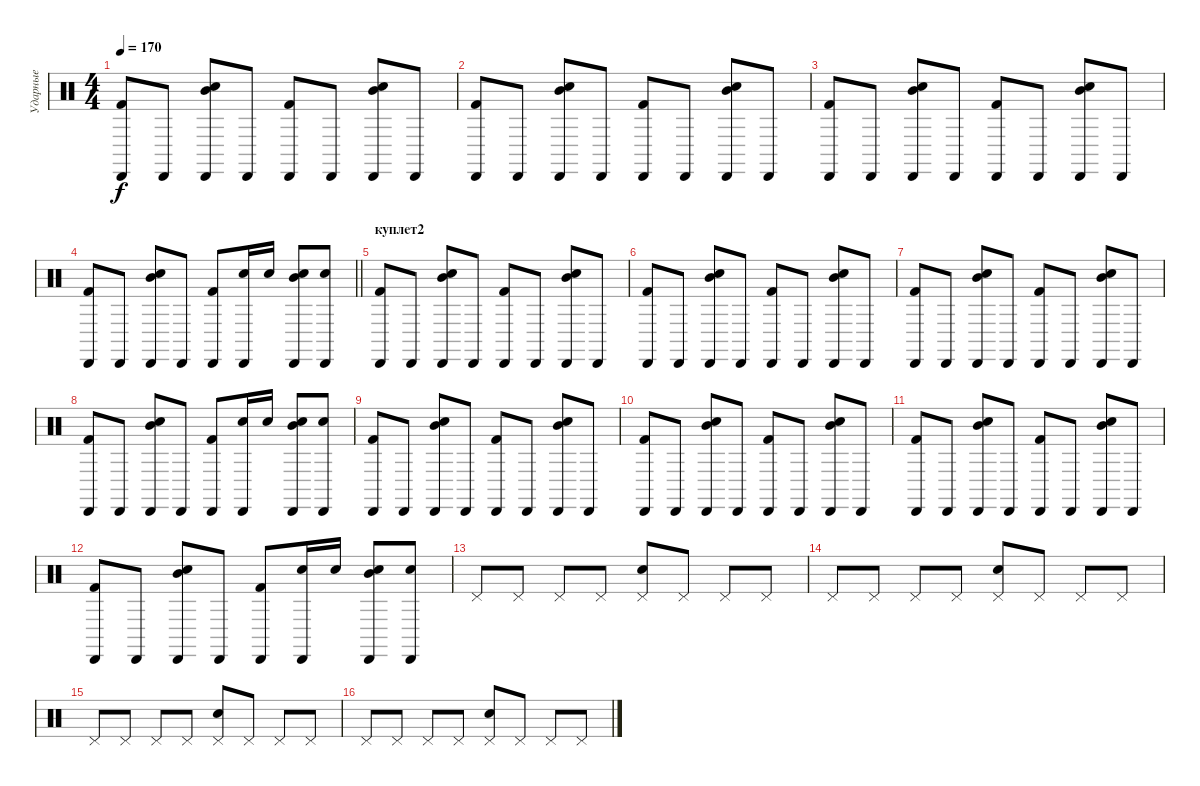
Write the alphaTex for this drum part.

\track ("Ударные" "Ударные") {instrument percussion}
\staff {score}
\articulation defaults
\ts (4 4)
\tempo 170
\clef neutral
\ks c
("Kick (hit) 2" "Cabasa (hit)").8{dy f} "Cabasa (hit)".8 ("Electric Snare (hit)" "Mid Tom (hit)" "Cabasa (hit)").8 "Cabasa (hit)".8 ("Cabasa (hit)" "Kick (hit) 2").8 "Cabasa (hit)".8 ("Cabasa (hit)" "Electric Snare (hit)" "Mid Tom (hit)").8 "Cabasa (hit)".8 |
("Cabasa (hit)" "Kick (hit) 2").8 "Cabasa (hit)".8 ("Electric Snare (hit)" "Cabasa (hit)" "Mid Tom (hit)").8 "Cabasa (hit)".8 ("Cabasa (hit)" "Kick (hit) 2").8 "Cabasa (hit)".8 ("Mid Tom (hit)" "Electric Snare (hit)" "Cabasa (hit)").8 "Cabasa (hit)".8 |
("Kick (hit) 2" "Cabasa (hit)").8 "Cabasa (hit)".8 ("Electric Snare (hit)" "Mid Tom (hit)" "Cabasa (hit)").8 "Cabasa (hit)".8 ("Cabasa (hit)" "Kick (hit) 2").8 "Cabasa (hit)".8 ("Cabasa (hit)" "Electric Snare (hit)" "Mid Tom (hit)").8 "Cabasa (hit)".8 |
\barLineRight lightlight
("Cabasa (hit)" "Kick (hit) 2").8 "Cabasa (hit)".8 ("Electric Snare (hit)" "Cabasa (hit)" "Mid Tom (hit)").8 "Cabasa (hit)".8 ("Cabasa (hit)" "Kick (hit) 2").8 ("Electric Snare (hit)" "Cabasa (hit)").16 "Electric Snare (hit)".16 ("Electric Snare (hit)" "Mid Tom (hit)" "Cabasa (hit)").8 ("Electric Snare (hit)" "Cabasa (hit)").8 |
\section ("" "куплет2")
("Kick (hit) 2" "Cabasa (hit)").8 "Cabasa (hit)".8 ("Electric Snare (hit)" "Mid Tom (hit)" "Cabasa (hit)").8 "Cabasa (hit)".8 ("Cabasa (hit)" "Kick (hit) 2").8 "Cabasa (hit)".8 ("Cabasa (hit)" "Electric Snare (hit)" "Mid Tom (hit)").8 "Cabasa (hit)".8 |
("Cabasa (hit)" "Kick (hit) 2").8 "Cabasa (hit)".8 ("Electric Snare (hit)" "Cabasa (hit)" "Mid Tom (hit)").8 "Cabasa (hit)".8 ("Cabasa (hit)" "Kick (hit) 2").8 "Cabasa (hit)".8 ("Mid Tom (hit)" "Electric Snare (hit)" "Cabasa (hit)").8 "Cabasa (hit)".8 |
("Kick (hit) 2" "Cabasa (hit)").8 "Cabasa (hit)".8 ("Electric Snare (hit)" "Mid Tom (hit)" "Cabasa (hit)").8 "Cabasa (hit)".8 ("Cabasa (hit)" "Kick (hit) 2").8 "Cabasa (hit)".8 ("Cabasa (hit)" "Electric Snare (hit)" "Mid Tom (hit)").8 "Cabasa (hit)".8 |
("Cabasa (hit)" "Kick (hit) 2").8 "Cabasa (hit)".8 ("Electric Snare (hit)" "Cabasa (hit)" "Mid Tom (hit)").8 "Cabasa (hit)".8 ("Cabasa (hit)" "Kick (hit) 2").8 ("Electric Snare (hit)" "Cabasa (hit)").16 "Electric Snare (hit)".16 ("Electric Snare (hit)" "Mid Tom (hit)" "Cabasa (hit)").8 ("Electric Snare (hit)" "Cabasa (hit)").8 |
("Kick (hit) 2" "Cabasa (hit)").8 "Cabasa (hit)".8 ("Electric Snare (hit)" "Mid Tom (hit)" "Cabasa (hit)").8 "Cabasa (hit)".8 ("Cabasa (hit)" "Kick (hit) 2").8 "Cabasa (hit)".8 ("Cabasa (hit)" "Electric Snare (hit)" "Mid Tom (hit)").8 "Cabasa (hit)".8 |
("Cabasa (hit)" "Kick (hit) 2").8 "Cabasa (hit)".8 ("Electric Snare (hit)" "Cabasa (hit)" "Mid Tom (hit)").8 "Cabasa (hit)".8 ("Cabasa (hit)" "Kick (hit) 2").8 "Cabasa (hit)".8 ("Mid Tom (hit)" "Electric Snare (hit)" "Cabasa (hit)").8 "Cabasa (hit)".8 |
("Kick (hit) 2" "Cabasa (hit)").8 "Cabasa (hit)".8 ("Electric Snare (hit)" "Mid Tom (hit)" "Cabasa (hit)").8 "Cabasa (hit)".8 ("Cabasa (hit)" "Kick (hit) 2").8 "Cabasa (hit)".8 ("Cabasa (hit)" "Electric Snare (hit)" "Mid Tom (hit)").8 "Cabasa (hit)".8 |
("Cabasa (hit)" "Kick (hit) 2").8 "Cabasa (hit)".8 ("Electric Snare (hit)" "Cabasa (hit)" "Mid Tom (hit)").8 "Cabasa (hit)".8 ("Cabasa (hit)" "Kick (hit) 2").8 ("Electric Snare (hit)" "Cabasa (hit)").16 "Electric Snare (hit)".16 ("Electric Snare (hit)" "Mid Tom (hit)" "Cabasa (hit)").8 ("Electric Snare (hit)" "Cabasa (hit)").8 |
"Pedal Hi-Hat (hit)".8 "Pedal Hi-Hat (hit)".8 "Pedal Hi-Hat (hit)".8 "Pedal Hi-Hat (hit)".8 ("Electric Snare (hit)" "Pedal Hi-Hat (hit)").8 "Pedal Hi-Hat (hit)".8 "Pedal Hi-Hat (hit)".8 "Pedal Hi-Hat (hit)".8 |
"Pedal Hi-Hat (hit)".8 "Pedal Hi-Hat (hit)".8 "Pedal Hi-Hat (hit)".8 "Pedal Hi-Hat (hit)".8 ("Electric Snare (hit)" "Pedal Hi-Hat (hit)").8 "Pedal Hi-Hat (hit)".8 "Pedal Hi-Hat (hit)".8 "Pedal Hi-Hat (hit)".8 |
"Pedal Hi-Hat (hit)".8 "Pedal Hi-Hat (hit)".8 "Pedal Hi-Hat (hit)".8 "Pedal Hi-Hat (hit)".8 ("Electric Snare (hit)" "Pedal Hi-Hat (hit)").8 "Pedal Hi-Hat (hit)".8 "Pedal Hi-Hat (hit)".8 "Pedal Hi-Hat (hit)".8 |
"Pedal Hi-Hat (hit)".8 "Pedal Hi-Hat (hit)".8 "Pedal Hi-Hat (hit)".8 "Pedal Hi-Hat (hit)".8 ("Electric Snare (hit)" "Pedal Hi-Hat (hit)").8 "Pedal Hi-Hat (hit)".8 "Pedal Hi-Hat (hit)".8 "Pedal Hi-Hat (hit)".8
